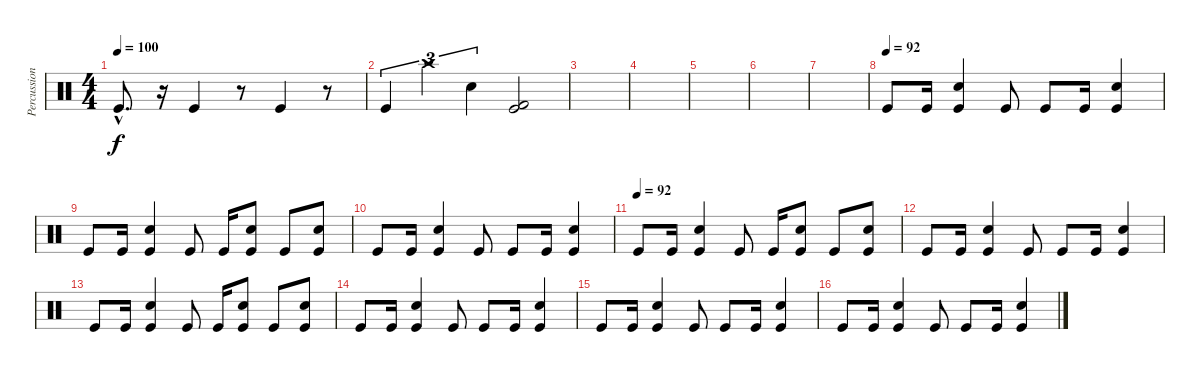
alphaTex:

\track ("Percussion" "Percussion") {instrument percussion}
\staff {score}
\articulation defaults
\ts (4 4)
\tempo 100
\clef neutral
\ks c "Kick (hit)"{hac}.8{d dy f}
r.16 "Kick (hit)".4 r.8 "Kick (hit)".4 r.8 |
"Kick (hit)".4{tu (3 2)} "Crash high (hit)".4{tu (3 2)} "Electric Snare (hit)".4{tu (3 2)} ("Kick (hit)" "Kick (hit) 2").2 |
|
|
|
|
|
\tempo (92)
"Kick (hit)".8 "Kick (hit)".16 ("Kick (hit)" "Electric Snare (hit)").4 "Kick (hit)".8 "Kick (hit)".8 "Kick (hit)".16 ("Kick (hit)" "Electric Snare (hit)").4 |
"Kick (hit)".8 "Kick (hit)".16 ("Kick (hit)" "Electric Snare (hit)").4 "Kick (hit)".8 "Kick (hit)".16 ("Kick (hit)" "Electric Snare (hit)").8 "Kick (hit)".8 ("Kick (hit)" "Electric Snare (hit)").8 |
"Kick (hit)".8 "Kick (hit)".16 ("Kick (hit)" "Electric Snare (hit)").4 "Kick (hit)".8 "Kick (hit)".8 "Kick (hit)".16 ("Kick (hit)" "Electric Snare (hit)").4 |
\tempo (92)
"Kick (hit)".8 "Kick (hit)".16 ("Kick (hit)" "Electric Snare (hit)").4 "Kick (hit)".8 "Kick (hit)".16 ("Kick (hit)" "Electric Snare (hit)").8 "Kick (hit)".8 ("Kick (hit)" "Electric Snare (hit)").8 |
"Kick (hit)".8 "Kick (hit)".16 ("Kick (hit)" "Electric Snare (hit)").4 "Kick (hit)".8 "Kick (hit)".8 "Kick (hit)".16 ("Kick (hit)" "Electric Snare (hit)").4 |
"Kick (hit)".8 "Kick (hit)".16 ("Kick (hit)" "Electric Snare (hit)").4 "Kick (hit)".8 "Kick (hit)".16 ("Kick (hit)" "Electric Snare (hit)").8 "Kick (hit)".8 ("Kick (hit)" "Electric Snare (hit)").8 |
"Kick (hit)".8 "Kick (hit)".16 ("Kick (hit)" "Electric Snare (hit)").4 "Kick (hit)".8 "Kick (hit)".8 "Kick (hit)".16 ("Kick (hit)" "Electric Snare (hit)").4 |
"Kick (hit)".8 "Kick (hit)".16 ("Kick (hit)" "Electric Snare (hit)").4 "Kick (hit)".8 "Kick (hit)".8 "Kick (hit)".16 ("Kick (hit)" "Electric Snare (hit)").4 |
"Kick (hit)".8 "Kick (hit)".16 ("Kick (hit)" "Electric Snare (hit)").4 "Kick (hit)".8 "Kick (hit)".8 "Kick (hit)".16 ("Kick (hit)" "Electric Snare (hit)").4
